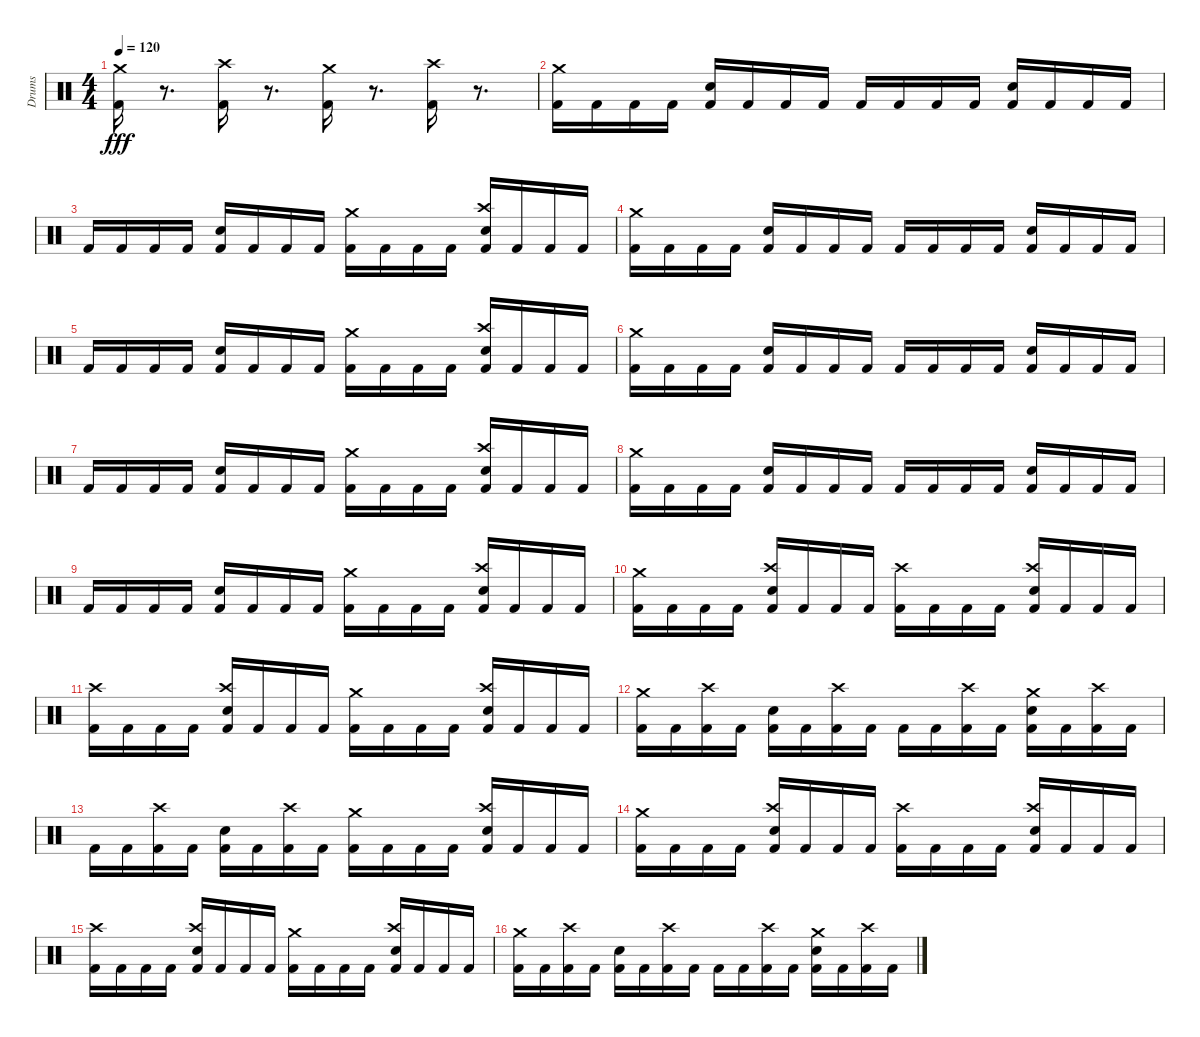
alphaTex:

\track ("Drums" "Drums") {instrument percussion}
\staff {score}
\articulation defaults
\ts (4 4)
\tempo 120
\clef neutral
\ks c
("Kick (hit) 2" "Crash medium (hit)").16{dy fff} r.8{d} ("Kick (hit) 2" "Crash high (hit)").16 r.8{d} ("Kick (hit) 2" "Crash medium (hit)").16 r.8{d} ("Kick (hit) 2" "Crash high (hit)").16 r.8{d} |
("Kick (hit) 2" "Crash medium (hit)").16 "Kick (hit) 2".16 "Kick (hit) 2".16 "Kick (hit) 2".16 ("Kick (hit) 2" "Electric Snare (hit)").16 "Kick (hit) 2".16 "Kick (hit) 2".16 "Kick (hit) 2".16 "Kick (hit) 2".16 "Kick (hit) 2".16 "Kick (hit) 2".16 "Kick (hit) 2".16 ("Kick (hit) 2" "Electric Snare (hit)").16 "Kick (hit) 2".16 "Kick (hit) 2".16 "Kick (hit) 2".16 |
"Kick (hit) 2".16 "Kick (hit) 2".16 "Kick (hit) 2".16 "Kick (hit) 2".16 ("Kick (hit) 2" "Electric Snare (hit)").16 "Kick (hit) 2".16 "Kick (hit) 2".16 "Kick (hit) 2".16 ("Kick (hit) 2" "Crash medium (hit)").16 "Kick (hit) 2".16 "Kick (hit) 2".16 "Kick (hit) 2".16 ("Kick (hit) 2" "Electric Snare (hit)" "Crash high (hit)").16 "Kick (hit) 2".16 "Kick (hit) 2".16 "Kick (hit) 2".16 |
("Kick (hit) 2" "Crash medium (hit)").16 "Kick (hit) 2".16 "Kick (hit) 2".16 "Kick (hit) 2".16 ("Kick (hit) 2" "Electric Snare (hit)").16 "Kick (hit) 2".16 "Kick (hit) 2".16 "Kick (hit) 2".16 "Kick (hit) 2".16 "Kick (hit) 2".16 "Kick (hit) 2".16 "Kick (hit) 2".16 ("Kick (hit) 2" "Electric Snare (hit)").16 "Kick (hit) 2".16 "Kick (hit) 2".16 "Kick (hit) 2".16 |
"Kick (hit) 2".16 "Kick (hit) 2".16 "Kick (hit) 2".16 "Kick (hit) 2".16 ("Kick (hit) 2" "Electric Snare (hit)").16 "Kick (hit) 2".16 "Kick (hit) 2".16 "Kick (hit) 2".16 ("Kick (hit) 2" "Crash medium (hit)").16 "Kick (hit) 2".16 "Kick (hit) 2".16 "Kick (hit) 2".16 ("Kick (hit) 2" "Electric Snare (hit)" "Crash high (hit)").16 "Kick (hit) 2".16 "Kick (hit) 2".16 "Kick (hit) 2".16 |
("Kick (hit) 2" "Crash medium (hit)").16 "Kick (hit) 2".16 "Kick (hit) 2".16 "Kick (hit) 2".16 ("Kick (hit) 2" "Electric Snare (hit)").16 "Kick (hit) 2".16 "Kick (hit) 2".16 "Kick (hit) 2".16 "Kick (hit) 2".16 "Kick (hit) 2".16 "Kick (hit) 2".16 "Kick (hit) 2".16 ("Kick (hit) 2" "Electric Snare (hit)").16 "Kick (hit) 2".16 "Kick (hit) 2".16 "Kick (hit) 2".16 |
"Kick (hit) 2".16 "Kick (hit) 2".16 "Kick (hit) 2".16 "Kick (hit) 2".16 ("Kick (hit) 2" "Electric Snare (hit)").16 "Kick (hit) 2".16 "Kick (hit) 2".16 "Kick (hit) 2".16 ("Kick (hit) 2" "Crash medium (hit)").16 "Kick (hit) 2".16 "Kick (hit) 2".16 "Kick (hit) 2".16 ("Kick (hit) 2" "Electric Snare (hit)" "Crash high (hit)").16 "Kick (hit) 2".16 "Kick (hit) 2".16 "Kick (hit) 2".16 |
("Kick (hit) 2" "Crash medium (hit)").16 "Kick (hit) 2".16 "Kick (hit) 2".16 "Kick (hit) 2".16 ("Kick (hit) 2" "Electric Snare (hit)").16 "Kick (hit) 2".16 "Kick (hit) 2".16 "Kick (hit) 2".16 "Kick (hit) 2".16 "Kick (hit) 2".16 "Kick (hit) 2".16 "Kick (hit) 2".16 ("Kick (hit) 2" "Electric Snare (hit)").16 "Kick (hit) 2".16 "Kick (hit) 2".16 "Kick (hit) 2".16 |
"Kick (hit) 2".16 "Kick (hit) 2".16 "Kick (hit) 2".16 "Kick (hit) 2".16 ("Kick (hit) 2" "Electric Snare (hit)").16 "Kick (hit) 2".16 "Kick (hit) 2".16 "Kick (hit) 2".16 ("Kick (hit) 2" "Crash medium (hit)").16 "Kick (hit) 2".16 "Kick (hit) 2".16 "Kick (hit) 2".16 ("Electric Snare (hit)" "Kick (hit) 2" "Crash high (hit)").16 "Kick (hit) 2".16 "Kick (hit) 2".16 "Kick (hit) 2".16 |
("Kick (hit) 2" "Crash medium (hit)").16 "Kick (hit) 2".16 "Kick (hit) 2".16 "Kick (hit) 2".16 ("Kick (hit) 2" "Electric Snare (hit)" "Crash high (hit)").16 "Kick (hit) 2".16 "Kick (hit) 2".16 "Kick (hit) 2".16 ("Kick (hit) 2" "Crash high (hit)").16 "Kick (hit) 2".16 "Kick (hit) 2".16 "Kick (hit) 2".16 ("Kick (hit) 2" "Electric Snare (hit)" "Crash high (hit)").16 "Kick (hit) 2".16 "Kick (hit) 2".16 "Kick (hit) 2".16 |
("Kick (hit) 2" "Crash high (hit)").16 "Kick (hit) 2".16 "Kick (hit) 2".16 "Kick (hit) 2".16 ("Kick (hit) 2" "Electric Snare (hit)" "Crash high (hit)").16 "Kick (hit) 2".16 "Kick (hit) 2".16 "Kick (hit) 2".16 ("Kick (hit) 2" "Crash medium (hit)").16 "Kick (hit) 2".16 "Kick (hit) 2".16 "Kick (hit) 2".16 ("Kick (hit) 2" "Electric Snare (hit)" "Crash high (hit)").16 "Kick (hit) 2".16 "Kick (hit) 2".16 "Kick (hit) 2".16 |
("Kick (hit) 2" "Crash medium (hit)").16 "Kick (hit) 2".16 ("Kick (hit) 2" "Crash high (hit)").16 "Kick (hit) 2".16 ("Kick (hit) 2" "Electric Snare (hit)").16 "Kick (hit) 2".16 ("Kick (hit) 2" "Crash high (hit)").16 "Kick (hit) 2".16 "Kick (hit) 2".16 "Kick (hit) 2".16 ("Kick (hit) 2" "Crash high (hit)").16 "Kick (hit) 2".16 ("Kick (hit) 2" "Electric Snare (hit)" "Crash medium (hit)").16 "Kick (hit) 2".16 ("Kick (hit) 2" "Crash high (hit)").16 "Kick (hit) 2".16 |
"Kick (hit) 2".16 "Kick (hit) 2".16 ("Kick (hit) 2" "Crash high (hit)").16 "Kick (hit) 2".16 ("Kick (hit) 2" "Electric Snare (hit)").16 "Kick (hit) 2".16 ("Kick (hit) 2" "Crash high (hit)").16 "Kick (hit) 2".16 ("Kick (hit) 2" "Crash medium (hit)").16 "Kick (hit) 2".16 "Kick (hit) 2".16 "Kick (hit) 2".16 ("Kick (hit) 2" "Electric Snare (hit)" "Crash high (hit)").16 "Kick (hit) 2".16 "Kick (hit) 2".16 "Kick (hit) 2".16 |
("Kick (hit) 2" "Crash medium (hit)").16 "Kick (hit) 2".16 "Kick (hit) 2".16 "Kick (hit) 2".16 ("Kick (hit) 2" "Electric Snare (hit)" "Crash high (hit)").16 "Kick (hit) 2".16 "Kick (hit) 2".16 "Kick (hit) 2".16 ("Kick (hit) 2" "Crash high (hit)").16 "Kick (hit) 2".16 "Kick (hit) 2".16 "Kick (hit) 2".16 ("Kick (hit) 2" "Electric Snare (hit)" "Crash high (hit)").16 "Kick (hit) 2".16 "Kick (hit) 2".16 "Kick (hit) 2".16 |
("Kick (hit) 2" "Crash high (hit)").16 "Kick (hit) 2".16 "Kick (hit) 2".16 "Kick (hit) 2".16 ("Kick (hit) 2" "Electric Snare (hit)" "Crash high (hit)").16 "Kick (hit) 2".16 "Kick (hit) 2".16 "Kick (hit) 2".16 ("Kick (hit) 2" "Crash medium (hit)").16 "Kick (hit) 2".16 "Kick (hit) 2".16 "Kick (hit) 2".16 ("Kick (hit) 2" "Electric Snare (hit)" "Crash high (hit)").16 "Kick (hit) 2".16 "Kick (hit) 2".16 "Kick (hit) 2".16 |
("Kick (hit) 2" "Crash medium (hit)").16 "Kick (hit) 2".16 ("Kick (hit) 2" "Crash high (hit)").16 "Kick (hit) 2".16 ("Kick (hit) 2" "Electric Snare (hit)").16 "Kick (hit) 2".16 ("Kick (hit) 2" "Crash high (hit)").16 "Kick (hit) 2".16 "Kick (hit) 2".16 "Kick (hit) 2".16 ("Kick (hit) 2" "Crash high (hit)").16 "Kick (hit) 2".16 ("Kick (hit) 2" "Electric Snare (hit)" "Crash medium (hit)").16 "Kick (hit) 2".16 ("Kick (hit) 2" "Crash high (hit)").16 "Kick (hit) 2".16
